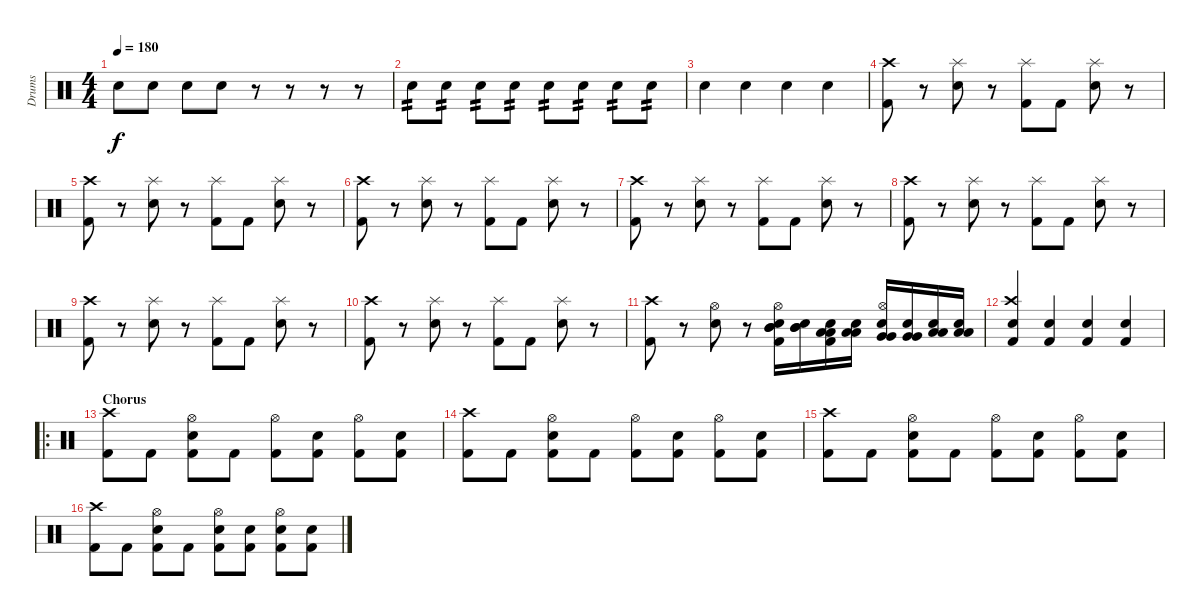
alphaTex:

\track ("Drums" "Drums") {instrument percussion}
\staff {score}
\articulation defaults
\ts (4 4)
\tempo 180
\clef neutral
\ks c "Electric Snare (hit)".8{dy f} "Electric Snare (hit)".8 "Electric Snare (hit)".8 "Electric Snare (hit)".8
r.8 r.8 r.8 r.8 |
"Electric Snare (hit)".8{tp 2} "Electric Snare (hit)".8{tp 2} "Electric Snare (hit)".8{tp 2} "Electric Snare (hit)".8{tp 2} "Electric Snare (hit)".8{tp 2} "Electric Snare (hit)".8{tp 2} "Electric Snare (hit)".8{tp 2} "Electric Snare (hit)".8{tp 2} |
"Electric Snare (hit)".4 "Electric Snare (hit)".4 "Electric Snare (hit)".4 "Electric Snare (hit)".4 |
("Crash high (hit)" "Kick (hit) 2").8 r.8 ("Splash (hit)" "Electric Snare (hit)").8 r.8 ("Splash (hit)" "Kick (hit) 2").8 "Kick (hit) 2".8 ("Splash (hit)" "Electric Snare (hit)").8 r.8 |
("Crash high (hit)" "Kick (hit) 2").8 r.8 ("Splash (hit)" "Electric Snare (hit)").8 r.8 ("Splash (hit)" "Kick (hit) 2").8 "Kick (hit) 2".8 ("Splash (hit)" "Electric Snare (hit)").8 r.8 |
("Crash high (hit)" "Kick (hit) 2").8 r.8 ("Splash (hit)" "Electric Snare (hit)").8 r.8 ("Splash (hit)" "Kick (hit) 2").8 "Kick (hit) 2".8 ("Splash (hit)" "Electric Snare (hit)").8 r.8 |
("Crash high (hit)" "Kick (hit) 2").8 r.8 ("Splash (hit)" "Electric Snare (hit)").8 r.8 ("Splash (hit)" "Kick (hit) 2").8 "Kick (hit) 2".8 ("Splash (hit)" "Electric Snare (hit)").8 r.8 |
("Crash high (hit)" "Kick (hit) 2").8 r.8 ("Splash (hit)" "Electric Snare (hit)").8 r.8 ("Splash (hit)" "Kick (hit) 2").8 "Kick (hit) 2".8 ("Splash (hit)" "Electric Snare (hit)").8 r.8 |
("Crash high (hit)" "Kick (hit) 2").8 r.8 ("Splash (hit)" "Electric Snare (hit)").8 r.8 ("Splash (hit)" "Kick (hit) 2").8 "Kick (hit) 2".8 ("Splash (hit)" "Electric Snare (hit)").8 r.8 |
("Crash high (hit)" "Kick (hit) 2").8 r.8 ("Splash (hit)" "Electric Snare (hit)").8 r.8 ("Splash (hit)" "Kick (hit) 2").8 "Kick (hit) 2".8 ("Splash (hit)" "Electric Snare (hit)").8 r.8 |
("Crash high (hit)" "Kick (hit) 2").8 r.8 ("Hi-Hat (open)" "Electric Snare (hit)").8 r.8 ("Mid Tom (hit)" "Mid Tom (hit)" "Hi-Hat (open)" "Electric Snare (hit)" "Kick (hit) 2").16 ("Mid Tom (hit)" "Mid Tom (hit)" "Electric Snare (hit)").16 ("Low Tom (hit)" "Low Tom (hit)" "Electric Snare (hit)" "Kick (hit) 2").16 ("Low Tom (hit)" "Low Tom (hit)" "Electric Snare (hit)").16 ("Very Low Tom (hit)" "Very Low Tom (hit)" "Hi-Hat (open)" "Electric Snare (hit)").16 ("Very Low Tom (hit)" "Very Low Tom (hit)" "Electric Snare (hit)").16 ("Low Floor Tom (hit)" "Low Floor Tom (hit)" "Electric Snare (hit)").16 ("Low Floor Tom (hit)" "Low Floor Tom (hit)" "Electric Snare (hit)").16 |
("Kick (hit) 2" "Crash high (hit)" "Electric Snare (hit)").4 ("Kick (hit) 2" "Electric Snare (hit)").4 ("Kick (hit) 2" "Electric Snare (hit)").4 ("Kick (hit) 2" "Electric Snare (hit)").4 |
\ro
\section ("" "Chorus")
("Crash high (hit)" "Kick (hit) 2").8 "Kick (hit) 2".8 ("Hi-Hat (open)" "Electric Snare (hit)" "Kick (hit) 2").8 "Kick (hit) 2".8 ("Hi-Hat (open)" "Kick (hit) 2").8 ("Electric Snare (hit)" "Kick (hit) 2").8 ("Hi-Hat (open)" "Kick (hit) 2").8 ("Electric Snare (hit)" "Kick (hit) 2").8 |
("Crash high (hit)" "Kick (hit) 2").8 "Kick (hit) 2".8 ("Hi-Hat (open)" "Electric Snare (hit)" "Kick (hit) 2").8 "Kick (hit) 2".8 ("Hi-Hat (open)" "Kick (hit) 2").8 ("Electric Snare (hit)" "Kick (hit) 2").8 ("Hi-Hat (open)" "Kick (hit) 2").8 ("Electric Snare (hit)" "Kick (hit) 2").8 |
("Crash high (hit)" "Kick (hit) 2").8 "Kick (hit) 2".8 ("Hi-Hat (open)" "Electric Snare (hit)" "Kick (hit) 2").8 "Kick (hit) 2".8 ("Hi-Hat (open)" "Kick (hit) 2").8 ("Electric Snare (hit)" "Kick (hit) 2").8 ("Hi-Hat (open)" "Kick (hit) 2").8 ("Electric Snare (hit)" "Kick (hit) 2").8 |
("Crash high (hit)" "Kick (hit) 2").8 "Kick (hit) 2".8 ("Hi-Hat (open)" "Electric Snare (hit)" "Kick (hit) 2").8 "Kick (hit) 2".8 ("Hi-Hat (open)" "Electric Snare (hit)" "Kick (hit) 2").8 ("Electric Snare (hit)" "Kick (hit) 2").8 ("Hi-Hat (open)" "Electric Snare (hit)" "Kick (hit) 2").8 ("Electric Snare (hit)" "Kick (hit) 2").8
